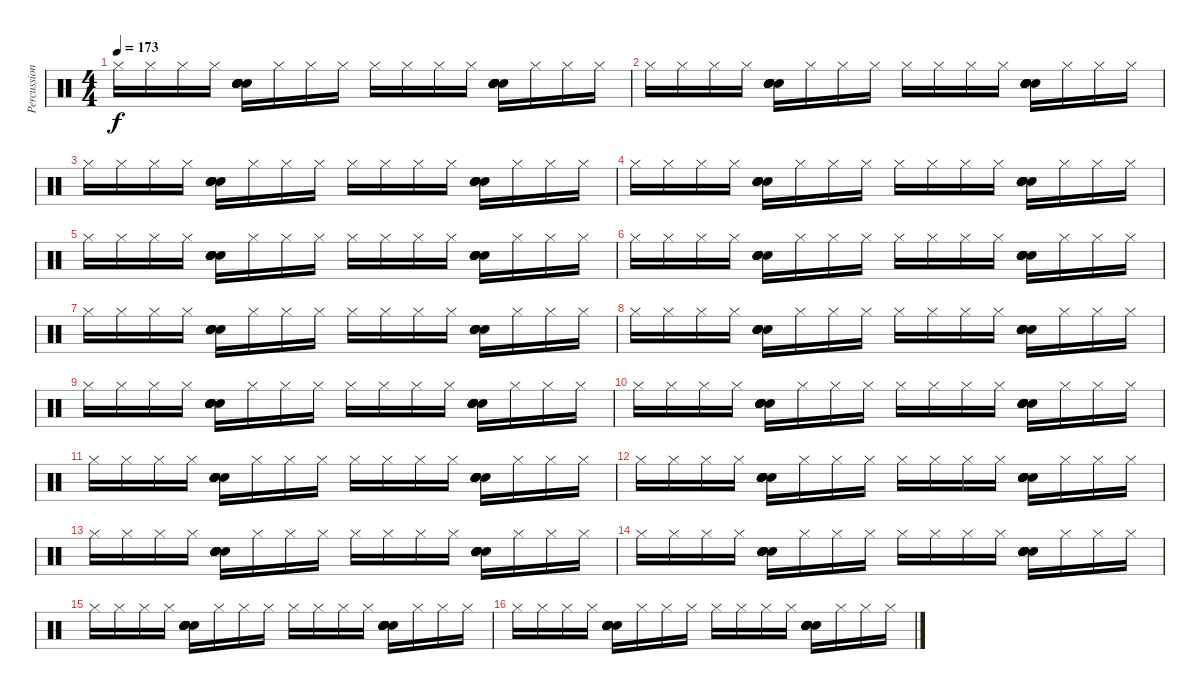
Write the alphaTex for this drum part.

\track ("Percussion" "Percussion") {instrument percussion}
\staff {score}
\articulation defaults
\ts (4 4)
\tempo 173
\clef neutral
\ks c "Hi-Hat (closed)".16{dy f} "Hi-Hat (closed)".16 "Hi-Hat (closed)".16 "Hi-Hat (closed)".16
("Electric Snare (hit)" "Electric Snare (hit)" "Electric Snare (hit)" "Electric Snare (hit)" "Electric Snare (hit)" "Electric Snare (hit)").16 "Hi-Hat (closed)".16 "Hi-Hat (closed)".16 "Hi-Hat (closed)".16 "Hi-Hat (closed)".16 "Hi-Hat (closed)".16 "Hi-Hat (closed)".16 "Hi-Hat (closed)".16 ("Electric Snare (hit)" "Electric Snare (hit)" "Electric Snare (hit)" "Electric Snare (hit)" "Electric Snare (hit)" "Electric Snare (hit)").16 "Hi-Hat (closed)".16 "Hi-Hat (closed)".16 "Hi-Hat (closed)".16 |
"Hi-Hat (closed)".16 "Hi-Hat (closed)".16 "Hi-Hat (closed)".16 "Hi-Hat (closed)".16 ("Electric Snare (hit)" "Electric Snare (hit)" "Electric Snare (hit)" "Electric Snare (hit)" "Electric Snare (hit)" "Electric Snare (hit)").16 "Hi-Hat (closed)".16 "Hi-Hat (closed)".16 "Hi-Hat (closed)".16 "Hi-Hat (closed)".16 "Hi-Hat (closed)".16 "Hi-Hat (closed)".16 "Hi-Hat (closed)".16 ("Electric Snare (hit)" "Electric Snare (hit)" "Electric Snare (hit)" "Electric Snare (hit)" "Electric Snare (hit)" "Electric Snare (hit)").16 "Hi-Hat (closed)".16 "Hi-Hat (closed)".16 "Hi-Hat (closed)".16 |
"Hi-Hat (closed)".16 "Hi-Hat (closed)".16 "Hi-Hat (closed)".16 "Hi-Hat (closed)".16 ("Electric Snare (hit)" "Electric Snare (hit)" "Electric Snare (hit)" "Electric Snare (hit)" "Electric Snare (hit)" "Electric Snare (hit)").16 "Hi-Hat (closed)".16 "Hi-Hat (closed)".16 "Hi-Hat (closed)".16 "Hi-Hat (closed)".16 "Hi-Hat (closed)".16 "Hi-Hat (closed)".16 "Hi-Hat (closed)".16 ("Electric Snare (hit)" "Electric Snare (hit)" "Electric Snare (hit)" "Electric Snare (hit)" "Electric Snare (hit)" "Electric Snare (hit)").16 "Hi-Hat (closed)".16 "Hi-Hat (closed)".16 "Hi-Hat (closed)".16 |
"Hi-Hat (closed)".16 "Hi-Hat (closed)".16 "Hi-Hat (closed)".16 "Hi-Hat (closed)".16 ("Electric Snare (hit)" "Electric Snare (hit)" "Electric Snare (hit)" "Electric Snare (hit)" "Electric Snare (hit)" "Electric Snare (hit)").16 "Hi-Hat (closed)".16 "Hi-Hat (closed)".16 "Hi-Hat (closed)".16 "Hi-Hat (closed)".16 "Hi-Hat (closed)".16 "Hi-Hat (closed)".16 "Hi-Hat (closed)".16 ("Electric Snare (hit)" "Electric Snare (hit)" "Electric Snare (hit)" "Electric Snare (hit)" "Electric Snare (hit)" "Electric Snare (hit)").16 "Hi-Hat (closed)".16 "Hi-Hat (closed)".16 "Hi-Hat (closed)".16 |
"Hi-Hat (closed)".16 "Hi-Hat (closed)".16 "Hi-Hat (closed)".16 "Hi-Hat (closed)".16 ("Electric Snare (hit)" "Electric Snare (hit)" "Electric Snare (hit)" "Electric Snare (hit)" "Electric Snare (hit)" "Electric Snare (hit)").16 "Hi-Hat (closed)".16 "Hi-Hat (closed)".16 "Hi-Hat (closed)".16 "Hi-Hat (closed)".16 "Hi-Hat (closed)".16 "Hi-Hat (closed)".16 "Hi-Hat (closed)".16 ("Electric Snare (hit)" "Electric Snare (hit)" "Electric Snare (hit)" "Electric Snare (hit)" "Electric Snare (hit)" "Electric Snare (hit)").16 "Hi-Hat (closed)".16 "Hi-Hat (closed)".16 "Hi-Hat (closed)".16 |
"Hi-Hat (closed)".16 "Hi-Hat (closed)".16 "Hi-Hat (closed)".16 "Hi-Hat (closed)".16 ("Electric Snare (hit)" "Electric Snare (hit)" "Electric Snare (hit)" "Electric Snare (hit)" "Electric Snare (hit)" "Electric Snare (hit)").16 "Hi-Hat (closed)".16 "Hi-Hat (closed)".16 "Hi-Hat (closed)".16 "Hi-Hat (closed)".16 "Hi-Hat (closed)".16 "Hi-Hat (closed)".16 "Hi-Hat (closed)".16 ("Electric Snare (hit)" "Electric Snare (hit)" "Electric Snare (hit)" "Electric Snare (hit)" "Electric Snare (hit)" "Electric Snare (hit)").16 "Hi-Hat (closed)".16 "Hi-Hat (closed)".16 "Hi-Hat (closed)".16 |
"Hi-Hat (closed)".16 "Hi-Hat (closed)".16 "Hi-Hat (closed)".16 "Hi-Hat (closed)".16 ("Electric Snare (hit)" "Electric Snare (hit)" "Electric Snare (hit)" "Electric Snare (hit)" "Electric Snare (hit)" "Electric Snare (hit)").16 "Hi-Hat (closed)".16 "Hi-Hat (closed)".16 "Hi-Hat (closed)".16 "Hi-Hat (closed)".16 "Hi-Hat (closed)".16 "Hi-Hat (closed)".16 "Hi-Hat (closed)".16 ("Electric Snare (hit)" "Electric Snare (hit)" "Electric Snare (hit)" "Electric Snare (hit)" "Electric Snare (hit)" "Electric Snare (hit)").16 "Hi-Hat (closed)".16 "Hi-Hat (closed)".16 "Hi-Hat (closed)".16 |
"Hi-Hat (closed)".16 "Hi-Hat (closed)".16 "Hi-Hat (closed)".16 "Hi-Hat (closed)".16 ("Electric Snare (hit)" "Electric Snare (hit)" "Electric Snare (hit)" "Electric Snare (hit)" "Electric Snare (hit)" "Electric Snare (hit)").16 "Hi-Hat (closed)".16 "Hi-Hat (closed)".16 "Hi-Hat (closed)".16 "Hi-Hat (closed)".16 "Hi-Hat (closed)".16 "Hi-Hat (closed)".16 "Hi-Hat (closed)".16 ("Electric Snare (hit)" "Electric Snare (hit)" "Electric Snare (hit)" "Electric Snare (hit)" "Electric Snare (hit)" "Electric Snare (hit)").16 "Hi-Hat (closed)".16 "Hi-Hat (closed)".16 "Hi-Hat (closed)".16 |
"Hi-Hat (closed)".16 "Hi-Hat (closed)".16 "Hi-Hat (closed)".16 "Hi-Hat (closed)".16 ("Electric Snare (hit)" "Electric Snare (hit)" "Electric Snare (hit)" "Electric Snare (hit)" "Electric Snare (hit)" "Electric Snare (hit)").16 "Hi-Hat (closed)".16 "Hi-Hat (closed)".16 "Hi-Hat (closed)".16 "Hi-Hat (closed)".16 "Hi-Hat (closed)".16 "Hi-Hat (closed)".16 "Hi-Hat (closed)".16 ("Electric Snare (hit)" "Electric Snare (hit)" "Electric Snare (hit)" "Electric Snare (hit)" "Electric Snare (hit)" "Electric Snare (hit)").16 "Hi-Hat (closed)".16 "Hi-Hat (closed)".16 "Hi-Hat (closed)".16 |
"Hi-Hat (closed)".16 "Hi-Hat (closed)".16 "Hi-Hat (closed)".16 "Hi-Hat (closed)".16 ("Electric Snare (hit)" "Electric Snare (hit)" "Electric Snare (hit)" "Electric Snare (hit)" "Electric Snare (hit)" "Electric Snare (hit)").16 "Hi-Hat (closed)".16 "Hi-Hat (closed)".16 "Hi-Hat (closed)".16 "Hi-Hat (closed)".16 "Hi-Hat (closed)".16 "Hi-Hat (closed)".16 "Hi-Hat (closed)".16 ("Electric Snare (hit)" "Electric Snare (hit)" "Electric Snare (hit)" "Electric Snare (hit)" "Electric Snare (hit)" "Electric Snare (hit)").16 "Hi-Hat (closed)".16 "Hi-Hat (closed)".16 "Hi-Hat (closed)".16 |
"Hi-Hat (closed)".16 "Hi-Hat (closed)".16 "Hi-Hat (closed)".16 "Hi-Hat (closed)".16 ("Electric Snare (hit)" "Electric Snare (hit)" "Electric Snare (hit)" "Electric Snare (hit)" "Electric Snare (hit)" "Electric Snare (hit)").16 "Hi-Hat (closed)".16 "Hi-Hat (closed)".16 "Hi-Hat (closed)".16 "Hi-Hat (closed)".16 "Hi-Hat (closed)".16 "Hi-Hat (closed)".16 "Hi-Hat (closed)".16 ("Electric Snare (hit)" "Electric Snare (hit)" "Electric Snare (hit)" "Electric Snare (hit)" "Electric Snare (hit)" "Electric Snare (hit)").16 "Hi-Hat (closed)".16 "Hi-Hat (closed)".16 "Hi-Hat (closed)".16 |
"Hi-Hat (closed)".16 "Hi-Hat (closed)".16 "Hi-Hat (closed)".16 "Hi-Hat (closed)".16 ("Electric Snare (hit)" "Electric Snare (hit)" "Electric Snare (hit)" "Electric Snare (hit)" "Electric Snare (hit)" "Electric Snare (hit)").16 "Hi-Hat (closed)".16 "Hi-Hat (closed)".16 "Hi-Hat (closed)".16 "Hi-Hat (closed)".16 "Hi-Hat (closed)".16 "Hi-Hat (closed)".16 "Hi-Hat (closed)".16 ("Electric Snare (hit)" "Electric Snare (hit)" "Electric Snare (hit)" "Electric Snare (hit)" "Electric Snare (hit)" "Electric Snare (hit)").16 "Hi-Hat (closed)".16 "Hi-Hat (closed)".16 "Hi-Hat (closed)".16 |
"Hi-Hat (closed)".16 "Hi-Hat (closed)".16 "Hi-Hat (closed)".16 "Hi-Hat (closed)".16 ("Electric Snare (hit)" "Electric Snare (hit)" "Electric Snare (hit)" "Electric Snare (hit)" "Electric Snare (hit)" "Electric Snare (hit)").16 "Hi-Hat (closed)".16 "Hi-Hat (closed)".16 "Hi-Hat (closed)".16 "Hi-Hat (closed)".16 "Hi-Hat (closed)".16 "Hi-Hat (closed)".16 "Hi-Hat (closed)".16 ("Electric Snare (hit)" "Electric Snare (hit)" "Electric Snare (hit)" "Electric Snare (hit)" "Electric Snare (hit)" "Electric Snare (hit)").16 "Hi-Hat (closed)".16 "Hi-Hat (closed)".16 "Hi-Hat (closed)".16 |
"Hi-Hat (closed)".16 "Hi-Hat (closed)".16 "Hi-Hat (closed)".16 "Hi-Hat (closed)".16 ("Electric Snare (hit)" "Electric Snare (hit)" "Electric Snare (hit)" "Electric Snare (hit)" "Electric Snare (hit)" "Electric Snare (hit)").16 "Hi-Hat (closed)".16 "Hi-Hat (closed)".16 "Hi-Hat (closed)".16 "Hi-Hat (closed)".16 "Hi-Hat (closed)".16 "Hi-Hat (closed)".16 "Hi-Hat (closed)".16 ("Electric Snare (hit)" "Electric Snare (hit)" "Electric Snare (hit)" "Electric Snare (hit)" "Electric Snare (hit)" "Electric Snare (hit)").16 "Hi-Hat (closed)".16 "Hi-Hat (closed)".16 "Hi-Hat (closed)".16 |
"Hi-Hat (closed)".16 "Hi-Hat (closed)".16 "Hi-Hat (closed)".16 "Hi-Hat (closed)".16 ("Electric Snare (hit)" "Electric Snare (hit)" "Electric Snare (hit)" "Electric Snare (hit)" "Electric Snare (hit)" "Electric Snare (hit)").16 "Hi-Hat (closed)".16 "Hi-Hat (closed)".16 "Hi-Hat (closed)".16 "Hi-Hat (closed)".16 "Hi-Hat (closed)".16 "Hi-Hat (closed)".16 "Hi-Hat (closed)".16 ("Electric Snare (hit)" "Electric Snare (hit)" "Electric Snare (hit)" "Electric Snare (hit)" "Electric Snare (hit)" "Electric Snare (hit)").16 "Hi-Hat (closed)".16 "Hi-Hat (closed)".16 "Hi-Hat (closed)".16 |
"Hi-Hat (closed)".16 "Hi-Hat (closed)".16 "Hi-Hat (closed)".16 "Hi-Hat (closed)".16 ("Electric Snare (hit)" "Electric Snare (hit)" "Electric Snare (hit)" "Electric Snare (hit)" "Electric Snare (hit)" "Electric Snare (hit)").16 "Hi-Hat (closed)".16 "Hi-Hat (closed)".16 "Hi-Hat (closed)".16 "Hi-Hat (closed)".16 "Hi-Hat (closed)".16 "Hi-Hat (closed)".16 "Hi-Hat (closed)".16 ("Electric Snare (hit)" "Electric Snare (hit)" "Electric Snare (hit)" "Electric Snare (hit)" "Electric Snare (hit)" "Electric Snare (hit)").16 "Hi-Hat (closed)".16 "Hi-Hat (closed)".16 "Hi-Hat (closed)".16
